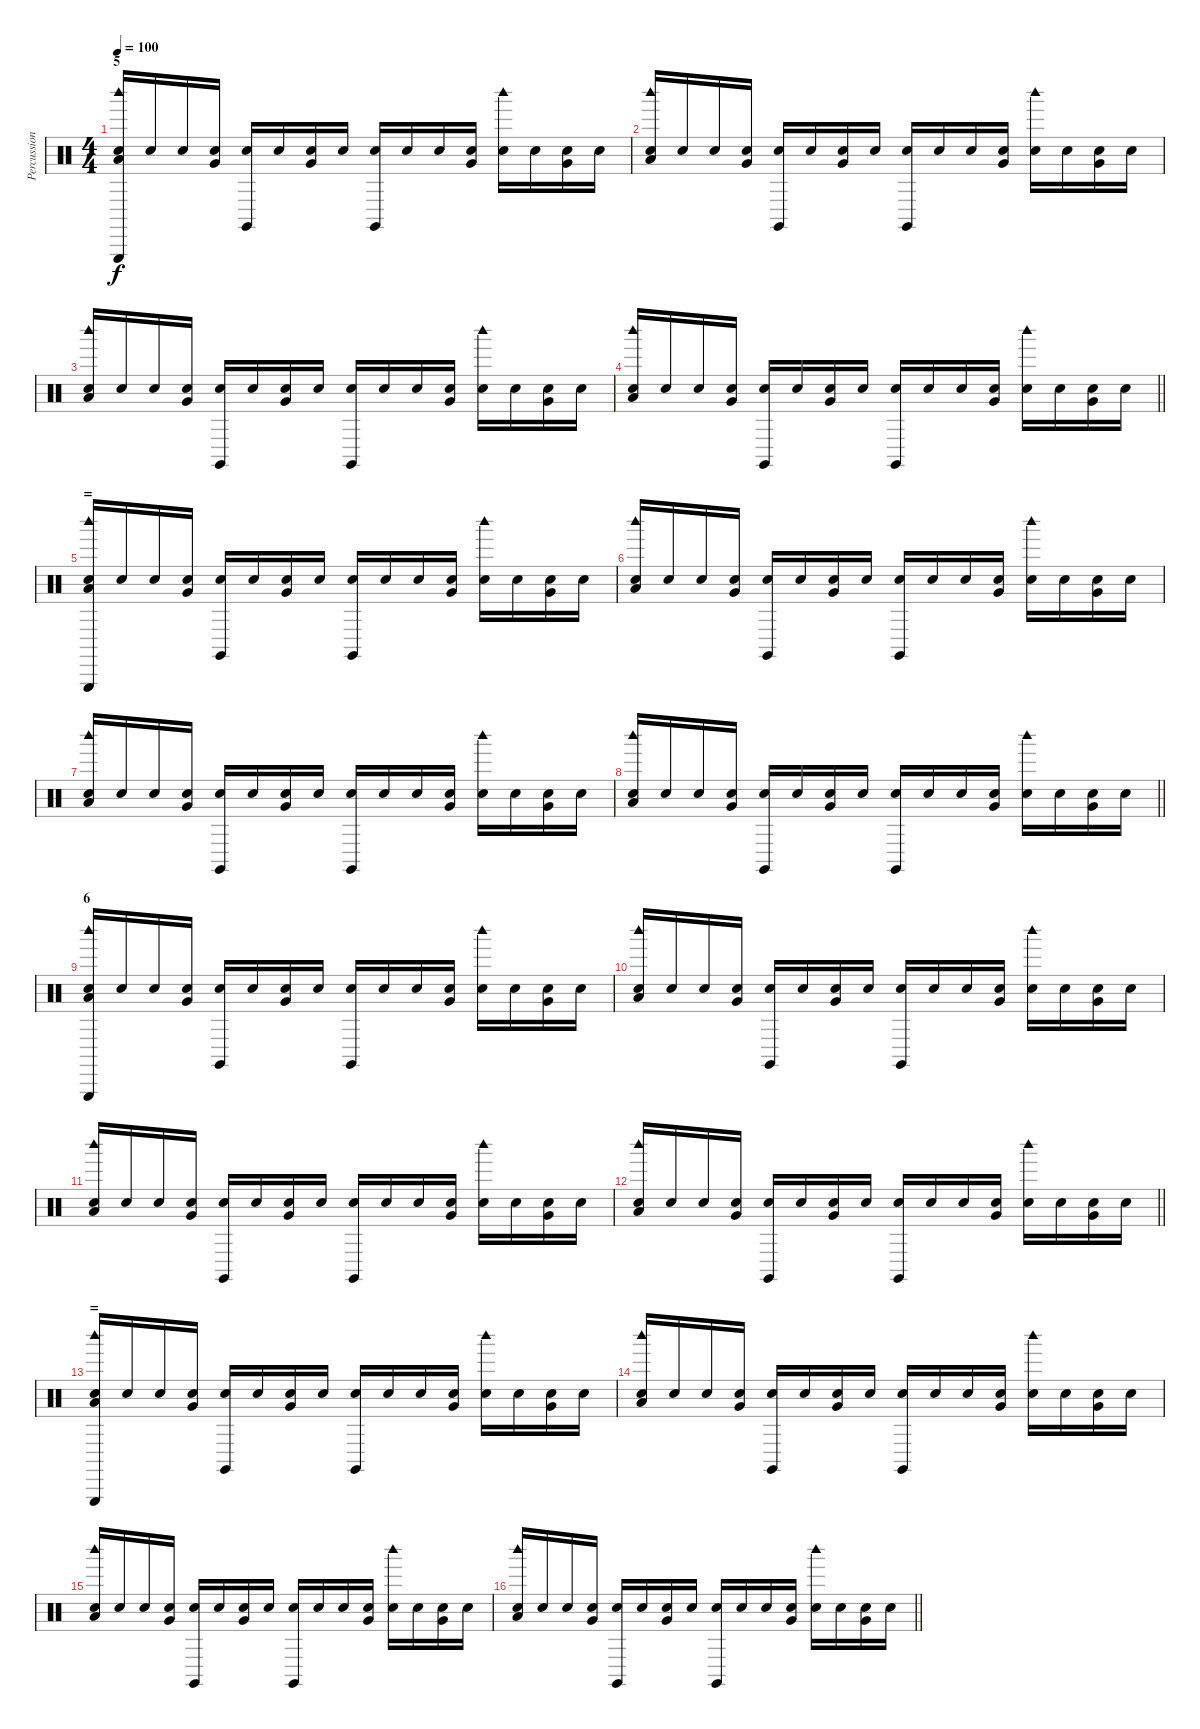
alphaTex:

\track ("Percussion" "Percussion") {instrument percussion}
\staff {score}
\articulation defaults
\ts (4 4)
\section ("" "5")
\tempo 100
\clef neutral
\ks c
("Low Floor Tom (hit)" "Woodblock high (hit)" "Metronome (bell)" "Triangle (hit)").16{dy f} "Metronome (bell)".16 "Metronome (bell)".16 ("Very Low Tom (hit)" "Metronome (bell)").16 ("Claves (hit)" "Metronome (bell)").16 "Metronome (bell)".16 ("Very Low Tom (hit)" "Metronome (bell)").16 "Metronome (bell)".16 ("Claves (hit)" "Metronome (bell)").16 "Metronome (bell)".16 "Metronome (bell)".16 ("Very Low Tom (hit)" "Metronome (bell)").16 ("Woodblock high (hit)" "Metronome (bell)").16 "Metronome (bell)".16 ("Very Low Tom (hit)" "Metronome (bell)").16 "Metronome (bell)".16 |
("Low Floor Tom (hit)" "Woodblock high (hit)" "Metronome (bell)").16 "Metronome (bell)".16 "Metronome (bell)".16 ("Very Low Tom (hit)" "Metronome (bell)").16 ("Claves (hit)" "Metronome (bell)").16 "Metronome (bell)".16 ("Very Low Tom (hit)" "Metronome (bell)").16 "Metronome (bell)".16 ("Claves (hit)" "Metronome (bell)").16 "Metronome (bell)".16 "Metronome (bell)".16 ("Very Low Tom (hit)" "Metronome (bell)").16 ("Woodblock high (hit)" "Metronome (bell)").16 "Metronome (bell)".16 ("Very Low Tom (hit)" "Metronome (bell)").16 "Metronome (bell)".16 |
("Low Floor Tom (hit)" "Woodblock high (hit)" "Metronome (bell)").16 "Metronome (bell)".16 "Metronome (bell)".16 ("Very Low Tom (hit)" "Metronome (bell)").16 ("Claves (hit)" "Metronome (bell)").16 "Metronome (bell)".16 ("Very Low Tom (hit)" "Metronome (bell)").16 "Metronome (bell)".16 ("Claves (hit)" "Metronome (bell)").16 "Metronome (bell)".16 "Metronome (bell)".16 ("Very Low Tom (hit)" "Metronome (bell)").16 ("Woodblock high (hit)" "Metronome (bell)").16 "Metronome (bell)".16 ("Very Low Tom (hit)" "Metronome (bell)").16 "Metronome (bell)".16 |
\barLineRight lightlight
("Low Floor Tom (hit)" "Woodblock high (hit)" "Metronome (bell)").16 "Metronome (bell)".16 "Metronome (bell)".16 ("Very Low Tom (hit)" "Metronome (bell)").16 ("Claves (hit)" "Metronome (bell)").16 "Metronome (bell)".16 ("Very Low Tom (hit)" "Metronome (bell)").16 "Metronome (bell)".16 ("Claves (hit)" "Metronome (bell)").16 "Metronome (bell)".16 "Metronome (bell)".16 ("Very Low Tom (hit)" "Metronome (bell)").16 ("Woodblock high (hit)" "Metronome (bell)").16 "Metronome (bell)".16 ("Very Low Tom (hit)" "Metronome (bell)").16 "Metronome (bell)".16 |
\section ("" "=")
("Low Floor Tom (hit)" "Woodblock high (hit)" "Metronome (bell)" "Triangle (hit)").16 "Metronome (bell)".16 "Metronome (bell)".16 ("Very Low Tom (hit)" "Metronome (bell)").16 ("Claves (hit)" "Metronome (bell)").16 "Metronome (bell)".16 ("Very Low Tom (hit)" "Metronome (bell)").16 "Metronome (bell)".16 ("Claves (hit)" "Metronome (bell)").16 "Metronome (bell)".16 "Metronome (bell)".16 ("Very Low Tom (hit)" "Metronome (bell)").16 ("Woodblock high (hit)" "Metronome (bell)").16 "Metronome (bell)".16 ("Very Low Tom (hit)" "Metronome (bell)").16 "Metronome (bell)".16 |
("Low Floor Tom (hit)" "Woodblock high (hit)" "Metronome (bell)").16 "Metronome (bell)".16 "Metronome (bell)".16 ("Very Low Tom (hit)" "Metronome (bell)").16 ("Claves (hit)" "Metronome (bell)").16 "Metronome (bell)".16 ("Very Low Tom (hit)" "Metronome (bell)").16 "Metronome (bell)".16 ("Claves (hit)" "Metronome (bell)").16 "Metronome (bell)".16 "Metronome (bell)".16 ("Very Low Tom (hit)" "Metronome (bell)").16 ("Woodblock high (hit)" "Metronome (bell)").16 "Metronome (bell)".16 ("Very Low Tom (hit)" "Metronome (bell)").16 "Metronome (bell)".16 |
("Low Floor Tom (hit)" "Woodblock high (hit)" "Metronome (bell)").16 "Metronome (bell)".16 "Metronome (bell)".16 ("Very Low Tom (hit)" "Metronome (bell)").16 ("Claves (hit)" "Metronome (bell)").16 "Metronome (bell)".16 ("Very Low Tom (hit)" "Metronome (bell)").16 "Metronome (bell)".16 ("Claves (hit)" "Metronome (bell)").16 "Metronome (bell)".16 "Metronome (bell)".16 ("Very Low Tom (hit)" "Metronome (bell)").16 ("Woodblock high (hit)" "Metronome (bell)").16 "Metronome (bell)".16 ("Very Low Tom (hit)" "Metronome (bell)").16 "Metronome (bell)".16 |
\barLineRight lightlight
("Low Floor Tom (hit)" "Woodblock high (hit)" "Metronome (bell)").16 "Metronome (bell)".16 "Metronome (bell)".16 ("Very Low Tom (hit)" "Metronome (bell)").16 ("Claves (hit)" "Metronome (bell)").16 "Metronome (bell)".16 ("Very Low Tom (hit)" "Metronome (bell)").16 "Metronome (bell)".16 ("Claves (hit)" "Metronome (bell)").16 "Metronome (bell)".16 "Metronome (bell)".16 ("Very Low Tom (hit)" "Metronome (bell)").16 ("Woodblock high (hit)" "Metronome (bell)").16 "Metronome (bell)".16 ("Very Low Tom (hit)" "Metronome (bell)").16 "Metronome (bell)".16 |
\section ("" "6")
("Low Floor Tom (hit)" "Woodblock high (hit)" "Metronome (bell)" "Triangle (hit)").16 "Metronome (bell)".16 "Metronome (bell)".16 ("Very Low Tom (hit)" "Metronome (bell)").16 ("Claves (hit)" "Metronome (bell)").16 "Metronome (bell)".16 ("Very Low Tom (hit)" "Metronome (bell)").16 "Metronome (bell)".16 ("Claves (hit)" "Metronome (bell)").16 "Metronome (bell)".16 "Metronome (bell)".16 ("Very Low Tom (hit)" "Metronome (bell)").16 ("Woodblock high (hit)" "Metronome (bell)").16 "Metronome (bell)".16 ("Very Low Tom (hit)" "Metronome (bell)").16 "Metronome (bell)".16 |
("Low Floor Tom (hit)" "Woodblock high (hit)" "Metronome (bell)").16 "Metronome (bell)".16 "Metronome (bell)".16 ("Very Low Tom (hit)" "Metronome (bell)").16 ("Claves (hit)" "Metronome (bell)").16 "Metronome (bell)".16 ("Very Low Tom (hit)" "Metronome (bell)").16 "Metronome (bell)".16 ("Claves (hit)" "Metronome (bell)").16 "Metronome (bell)".16 "Metronome (bell)".16 ("Very Low Tom (hit)" "Metronome (bell)").16 ("Woodblock high (hit)" "Metronome (bell)").16 "Metronome (bell)".16 ("Very Low Tom (hit)" "Metronome (bell)").16 "Metronome (bell)".16 |
("Low Floor Tom (hit)" "Woodblock high (hit)" "Metronome (bell)").16 "Metronome (bell)".16 "Metronome (bell)".16 ("Very Low Tom (hit)" "Metronome (bell)").16 ("Claves (hit)" "Metronome (bell)").16 "Metronome (bell)".16 ("Very Low Tom (hit)" "Metronome (bell)").16 "Metronome (bell)".16 ("Claves (hit)" "Metronome (bell)").16 "Metronome (bell)".16 "Metronome (bell)".16 ("Very Low Tom (hit)" "Metronome (bell)").16 ("Woodblock high (hit)" "Metronome (bell)").16 "Metronome (bell)".16 ("Very Low Tom (hit)" "Metronome (bell)").16 "Metronome (bell)".16 |
\barLineRight lightlight
("Low Floor Tom (hit)" "Woodblock high (hit)" "Metronome (bell)").16 "Metronome (bell)".16 "Metronome (bell)".16 ("Very Low Tom (hit)" "Metronome (bell)").16 ("Claves (hit)" "Metronome (bell)").16 "Metronome (bell)".16 ("Very Low Tom (hit)" "Metronome (bell)").16 "Metronome (bell)".16 ("Claves (hit)" "Metronome (bell)").16 "Metronome (bell)".16 "Metronome (bell)".16 ("Very Low Tom (hit)" "Metronome (bell)").16 ("Woodblock high (hit)" "Metronome (bell)").16 "Metronome (bell)".16 ("Very Low Tom (hit)" "Metronome (bell)").16 "Metronome (bell)".16 |
\section ("" "=")
("Low Floor Tom (hit)" "Woodblock high (hit)" "Metronome (bell)" "Triangle (hit)").16 "Metronome (bell)".16 "Metronome (bell)".16 ("Very Low Tom (hit)" "Metronome (bell)").16 ("Claves (hit)" "Metronome (bell)").16 "Metronome (bell)".16 ("Very Low Tom (hit)" "Metronome (bell)").16 "Metronome (bell)".16 ("Claves (hit)" "Metronome (bell)").16 "Metronome (bell)".16 "Metronome (bell)".16 ("Very Low Tom (hit)" "Metronome (bell)").16 ("Woodblock high (hit)" "Metronome (bell)").16 "Metronome (bell)".16 ("Very Low Tom (hit)" "Metronome (bell)").16 "Metronome (bell)".16 |
("Low Floor Tom (hit)" "Woodblock high (hit)" "Metronome (bell)").16 "Metronome (bell)".16 "Metronome (bell)".16 ("Very Low Tom (hit)" "Metronome (bell)").16 ("Claves (hit)" "Metronome (bell)").16 "Metronome (bell)".16 ("Very Low Tom (hit)" "Metronome (bell)").16 "Metronome (bell)".16 ("Claves (hit)" "Metronome (bell)").16 "Metronome (bell)".16 "Metronome (bell)".16 ("Very Low Tom (hit)" "Metronome (bell)").16 ("Woodblock high (hit)" "Metronome (bell)").16 "Metronome (bell)".16 ("Very Low Tom (hit)" "Metronome (bell)").16 "Metronome (bell)".16 |
("Low Floor Tom (hit)" "Woodblock high (hit)" "Metronome (bell)").16 "Metronome (bell)".16 "Metronome (bell)".16 ("Very Low Tom (hit)" "Metronome (bell)").16 ("Claves (hit)" "Metronome (bell)").16 "Metronome (bell)".16 ("Very Low Tom (hit)" "Metronome (bell)").16 "Metronome (bell)".16 ("Claves (hit)" "Metronome (bell)").16 "Metronome (bell)".16 "Metronome (bell)".16 ("Very Low Tom (hit)" "Metronome (bell)").16 ("Woodblock high (hit)" "Metronome (bell)").16 "Metronome (bell)".16 ("Very Low Tom (hit)" "Metronome (bell)").16 "Metronome (bell)".16 |
\barLineRight lightlight
("Low Floor Tom (hit)" "Woodblock high (hit)" "Metronome (bell)").16 "Metronome (bell)".16 "Metronome (bell)".16 ("Very Low Tom (hit)" "Metronome (bell)").16 ("Claves (hit)" "Metronome (bell)").16 "Metronome (bell)".16 ("Very Low Tom (hit)" "Metronome (bell)").16 "Metronome (bell)".16 ("Claves (hit)" "Metronome (bell)").16 "Metronome (bell)".16 "Metronome (bell)".16 ("Very Low Tom (hit)" "Metronome (bell)").16 ("Woodblock high (hit)" "Metronome (bell)").16 "Metronome (bell)".16 ("Very Low Tom (hit)" "Metronome (bell)").16 "Metronome (bell)".16
